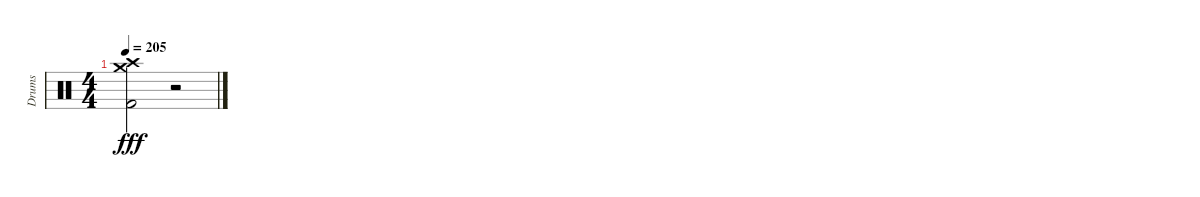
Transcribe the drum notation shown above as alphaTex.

\track ("Drums" "Drums") {instrument percussion}
\staff {score}
\articulation defaults
\ts (4 4)
\tempo 205
\clef neutral
\ks c
("Crash medium (hit)" "Crash high (hit)" "Kick (hit) 2").2{dy fff} r.2
